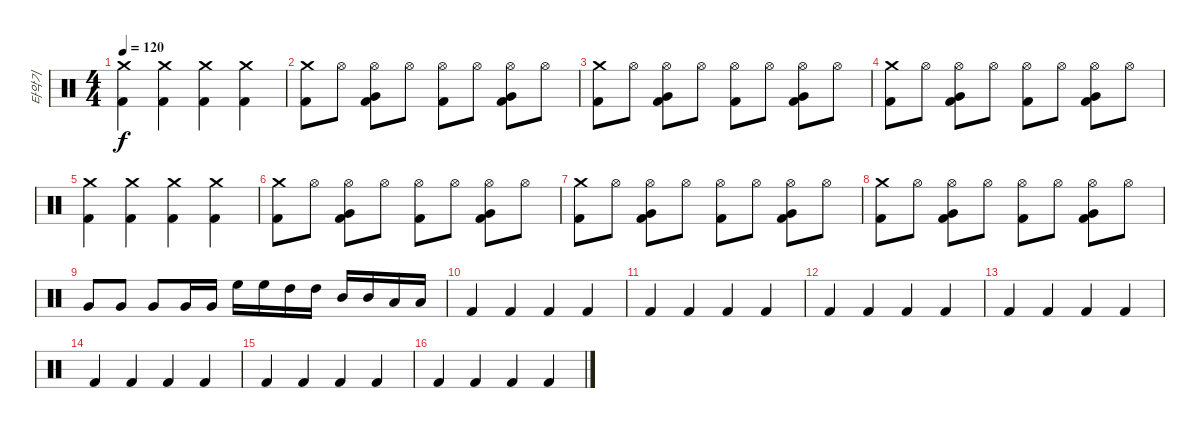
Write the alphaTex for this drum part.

\track ("타악기" "타악기") {instrument percussion}
\staff {score}
\articulation defaults
\ts (4 4)
\tempo 120
\clef neutral
\ks c
("Kick (hit) 2" "Crash medium (hit)").4{dy f} ("Kick (hit) 2" "Crash medium (hit)").4 ("Kick (hit) 2" "Crash medium (hit)").4 ("Kick (hit) 2" "Crash medium (hit)").4 |
("Kick (hit) 2" "Crash medium (hit)").8 "Hi-Hat (open)".8 ("Kick (hit) 2" "Very Low Tom (hit)" "Hi-Hat (open)").8 "Hi-Hat (open)".8 ("Kick (hit) 2" "Hi-Hat (open)").8 "Hi-Hat (open)".8 ("Kick (hit) 2" "Very Low Tom (hit)" "Hi-Hat (open)").8 "Hi-Hat (open)".8 |
("Kick (hit) 2" "Crash medium (hit)").8 "Hi-Hat (open)".8 ("Kick (hit) 2" "Very Low Tom (hit)" "Hi-Hat (open)").8 "Hi-Hat (open)".8 ("Kick (hit) 2" "Hi-Hat (open)").8 "Hi-Hat (open)".8 ("Kick (hit) 2" "Very Low Tom (hit)" "Hi-Hat (open)").8 "Hi-Hat (open)".8 |
("Kick (hit) 2" "Crash medium (hit)").8 "Hi-Hat (open)".8 ("Kick (hit) 2" "Very Low Tom (hit)" "Hi-Hat (open)").8 "Hi-Hat (open)".8 ("Kick (hit) 2" "Hi-Hat (open)").8 "Hi-Hat (open)".8 ("Kick (hit) 2" "Very Low Tom (hit)" "Hi-Hat (open)").8 "Hi-Hat (open)".8 |
("Kick (hit) 2" "Crash medium (hit)").4 ("Kick (hit) 2" "Crash medium (hit)").4 ("Kick (hit) 2" "Crash medium (hit)").4 ("Kick (hit) 2" "Crash medium (hit)").4 |
("Kick (hit) 2" "Crash medium (hit)").8 "Hi-Hat (open)".8 ("Kick (hit) 2" "Very Low Tom (hit)" "Hi-Hat (open)").8 "Hi-Hat (open)".8 ("Kick (hit) 2" "Hi-Hat (open)").8 "Hi-Hat (open)".8 ("Kick (hit) 2" "Very Low Tom (hit)" "Hi-Hat (open)").8 "Hi-Hat (open)".8 |
("Kick (hit) 2" "Crash medium (hit)").8 "Hi-Hat (open)".8 ("Kick (hit) 2" "Very Low Tom (hit)" "Hi-Hat (open)").8 "Hi-Hat (open)".8 ("Kick (hit) 2" "Hi-Hat (open)").8 "Hi-Hat (open)".8 ("Kick (hit) 2" "Very Low Tom (hit)" "Hi-Hat (open)").8 "Hi-Hat (open)".8 |
("Kick (hit) 2" "Crash medium (hit)").8 "Hi-Hat (open)".8 ("Kick (hit) 2" "Very Low Tom (hit)" "Hi-Hat (open)").8 "Hi-Hat (open)".8 ("Kick (hit) 2" "Hi-Hat (open)").8 "Hi-Hat (open)".8 ("Kick (hit) 2" "Very Low Tom (hit)" "Hi-Hat (open)").8 "Hi-Hat (open)".8 |
"Very Low Tom (hit)".8 "Very Low Tom (hit)".8 "Very Low Tom (hit)".8 "Very Low Tom (hit)".16 "Very Low Tom (hit)".16 "High Floor Tom (hit)".16 "High Floor Tom (hit)".16 "High Tom (hit)".16 "High Tom (hit)".16 "Mid Tom (hit)".16 "Mid Tom (hit)".16 "Low Tom (hit)".16 "Low Tom (hit)".16 |
"Kick (hit) 2".4 "Kick (hit) 2".4 "Kick (hit) 2".4 "Kick (hit) 2".4 |
"Kick (hit) 2".4 "Kick (hit) 2".4 "Kick (hit) 2".4 "Kick (hit) 2".4 |
"Kick (hit) 2".4 "Kick (hit) 2".4 "Kick (hit) 2".4 "Kick (hit) 2".4 |
"Kick (hit) 2".4 "Kick (hit) 2".4 "Kick (hit) 2".4 "Kick (hit) 2".4 |
"Kick (hit) 2".4 "Kick (hit) 2".4 "Kick (hit) 2".4 "Kick (hit) 2".4 |
"Kick (hit) 2".4 "Kick (hit) 2".4 "Kick (hit) 2".4 "Kick (hit) 2".4 |
"Kick (hit) 2".4 "Kick (hit) 2".4 "Kick (hit) 2".4 "Kick (hit) 2".4
